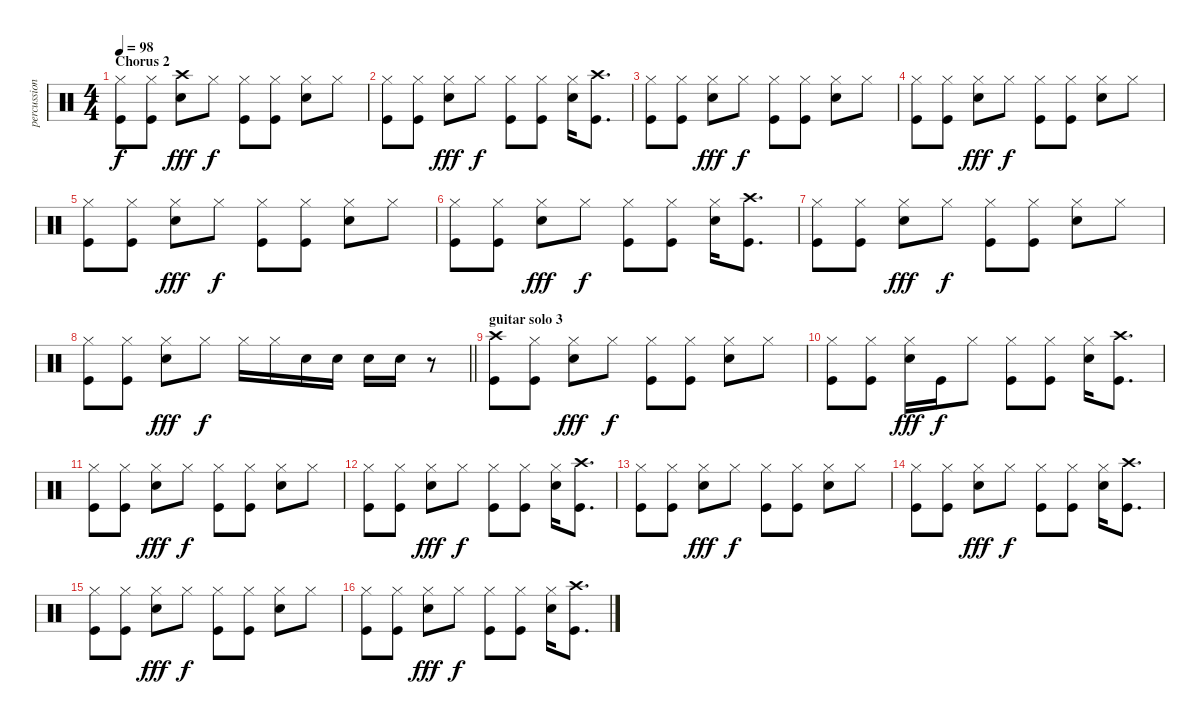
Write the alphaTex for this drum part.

\track ("percussion" "percussion") {instrument percussion}
\staff {score}
\articulation defaults
\ts (4 4)
\section ("" "Chorus 2")
\tempo 98
\clef neutral
\ks c
("Hi-Hat (closed)" "Kick (hit)").8{dy f} ("Hi-Hat (closed)" "Kick (hit)").8 ("Crash high (hit)" "Electric Snare (hit)").8{dy fff} "Hi-Hat (closed)".8{dy f} ("Hi-Hat (closed)" "Kick (hit)").8 ("Hi-Hat (closed)" "Kick (hit)").8 ("Electric Snare (hit)" "Hi-Hat (closed)").8 "Hi-Hat (closed)".8 |
("Hi-Hat (closed)" "Kick (hit)").8 ("Hi-Hat (closed)" "Kick (hit)").8 ("Electric Snare (hit)" "Hi-Hat (closed)").8{dy fff} "Hi-Hat (closed)".8{dy f} ("Hi-Hat (closed)" "Kick (hit)").8 ("Hi-Hat (closed)" "Kick (hit)").8 ("Electric Snare (hit)" "Hi-Hat (closed)").16 ("Crash high (hit)" "Kick (hit)").8{d} |
("Hi-Hat (closed)" "Kick (hit)").8 ("Hi-Hat (closed)" "Kick (hit)").8 ("Electric Snare (hit)" "Hi-Hat (closed)").8{dy fff} "Hi-Hat (closed)".8{dy f} ("Hi-Hat (closed)" "Kick (hit)").8 ("Hi-Hat (closed)" "Kick (hit)").8 ("Electric Snare (hit)" "Hi-Hat (closed)").8 "Hi-Hat (closed)".8 |
("Hi-Hat (closed)" "Kick (hit)").8 ("Hi-Hat (closed)" "Kick (hit)").8 ("Electric Snare (hit)" "Hi-Hat (closed)").8{dy fff} "Hi-Hat (closed)".8{dy f} ("Hi-Hat (closed)" "Kick (hit)").8 ("Hi-Hat (closed)" "Kick (hit)").8 ("Electric Snare (hit)" "Hi-Hat (closed)").8 "Hi-Hat (closed)".8 |
("Hi-Hat (closed)" "Kick (hit)").8 ("Hi-Hat (closed)" "Kick (hit)").8 ("Electric Snare (hit)" "Hi-Hat (closed)").8{dy fff} "Hi-Hat (closed)".8{dy f} ("Hi-Hat (closed)" "Kick (hit)").8 ("Hi-Hat (closed)" "Kick (hit)").8 ("Electric Snare (hit)" "Hi-Hat (closed)").8 "Hi-Hat (closed)".8 |
("Hi-Hat (closed)" "Kick (hit)").8 ("Hi-Hat (closed)" "Kick (hit)").8 ("Electric Snare (hit)" "Hi-Hat (closed)").8{dy fff} "Hi-Hat (closed)".8{dy f} ("Hi-Hat (closed)" "Kick (hit)").8 ("Hi-Hat (closed)" "Kick (hit)").8 ("Electric Snare (hit)" "Hi-Hat (closed)").16 ("Crash high (hit)" "Kick (hit)").8{d} |
("Hi-Hat (closed)" "Kick (hit)").8 ("Hi-Hat (closed)" "Kick (hit)").8 ("Electric Snare (hit)" "Hi-Hat (closed)").8{dy fff} "Hi-Hat (closed)".8{dy f} ("Hi-Hat (closed)" "Kick (hit)").8 ("Hi-Hat (closed)" "Kick (hit)").8 ("Electric Snare (hit)" "Hi-Hat (closed)").8 "Hi-Hat (closed)".8 |
\barLineRight lightlight
("Hi-Hat (closed)" "Kick (hit)").8 ("Hi-Hat (closed)" "Kick (hit)").8 ("Electric Snare (hit)" "Hi-Hat (closed)").8{dy fff} "Hi-Hat (closed)".8{dy f} "Hi-Hat (closed)".16 "Hi-Hat (closed)".16 "Electric Snare (hit)".16 "Electric Snare (hit)".16 "Electric Snare (hit)".16 "Electric Snare (hit)".16 r.8 |
\section ("" "guitar solo 3")
("Crash high (hit)" "Kick (hit)").8 ("Hi-Hat (closed)" "Kick (hit)").8 ("Electric Snare (hit)" "Hi-Hat (closed)").8{dy fff} "Hi-Hat (closed)".8{dy f} ("Hi-Hat (closed)" "Kick (hit)").8 ("Hi-Hat (closed)" "Kick (hit)").8 ("Electric Snare (hit)" "Hi-Hat (closed)").8 "Hi-Hat (closed)".8 |
("Hi-Hat (closed)" "Kick (hit)").8 ("Hi-Hat (closed)" "Kick (hit)").8 ("Electric Snare (hit)" "Hi-Hat (closed)").16{dy fff} "Kick (hit)".16{dy f} "Hi-Hat (closed)".8 ("Hi-Hat (closed)" "Kick (hit)").8 ("Hi-Hat (closed)" "Kick (hit)").8 ("Electric Snare (hit)" "Hi-Hat (closed)").16 ("Crash high (hit)" "Kick (hit)").8{d} |
("Hi-Hat (closed)" "Kick (hit)").8 ("Hi-Hat (closed)" "Kick (hit)").8 ("Electric Snare (hit)" "Hi-Hat (closed)").8{dy fff} "Hi-Hat (closed)".8{dy f} ("Hi-Hat (closed)" "Kick (hit)").8 ("Hi-Hat (closed)" "Kick (hit)").8 ("Electric Snare (hit)" "Hi-Hat (closed)").8 "Hi-Hat (closed)".8 |
("Hi-Hat (closed)" "Kick (hit)").8 ("Hi-Hat (closed)" "Kick (hit)").8 ("Electric Snare (hit)" "Hi-Hat (closed)").8{dy fff} "Hi-Hat (closed)".8{dy f} ("Hi-Hat (closed)" "Kick (hit)").8 ("Hi-Hat (closed)" "Kick (hit)").8 ("Electric Snare (hit)" "Hi-Hat (closed)").16 ("Crash high (hit)" "Kick (hit)").8{d} |
("Hi-Hat (closed)" "Kick (hit)").8 ("Hi-Hat (closed)" "Kick (hit)").8 ("Electric Snare (hit)" "Hi-Hat (closed)").8{dy fff} "Hi-Hat (closed)".8{dy f} ("Hi-Hat (closed)" "Kick (hit)").8 ("Hi-Hat (closed)" "Kick (hit)").8 ("Electric Snare (hit)" "Hi-Hat (closed)").8 "Hi-Hat (closed)".8 |
("Hi-Hat (closed)" "Kick (hit)").8 ("Hi-Hat (closed)" "Kick (hit)").8 ("Electric Snare (hit)" "Hi-Hat (closed)").8{dy fff} "Hi-Hat (closed)".8{dy f} ("Hi-Hat (closed)" "Kick (hit)").8 ("Hi-Hat (closed)" "Kick (hit)").8 ("Electric Snare (hit)" "Hi-Hat (closed)").16 ("Crash high (hit)" "Kick (hit)").8{d} |
("Hi-Hat (closed)" "Kick (hit)").8 ("Hi-Hat (closed)" "Kick (hit)").8 ("Electric Snare (hit)" "Hi-Hat (closed)").8{dy fff} "Hi-Hat (closed)".8{dy f} ("Hi-Hat (closed)" "Kick (hit)").8 ("Hi-Hat (closed)" "Kick (hit)").8 ("Electric Snare (hit)" "Hi-Hat (closed)").8 "Hi-Hat (closed)".8 |
("Hi-Hat (closed)" "Kick (hit)").8 ("Hi-Hat (closed)" "Kick (hit)").8 ("Electric Snare (hit)" "Hi-Hat (closed)").8{dy fff} "Hi-Hat (closed)".8{dy f} ("Hi-Hat (closed)" "Kick (hit)").8 ("Hi-Hat (closed)" "Kick (hit)").8 ("Electric Snare (hit)" "Hi-Hat (closed)").16 ("Crash high (hit)" "Kick (hit)").8{d}
